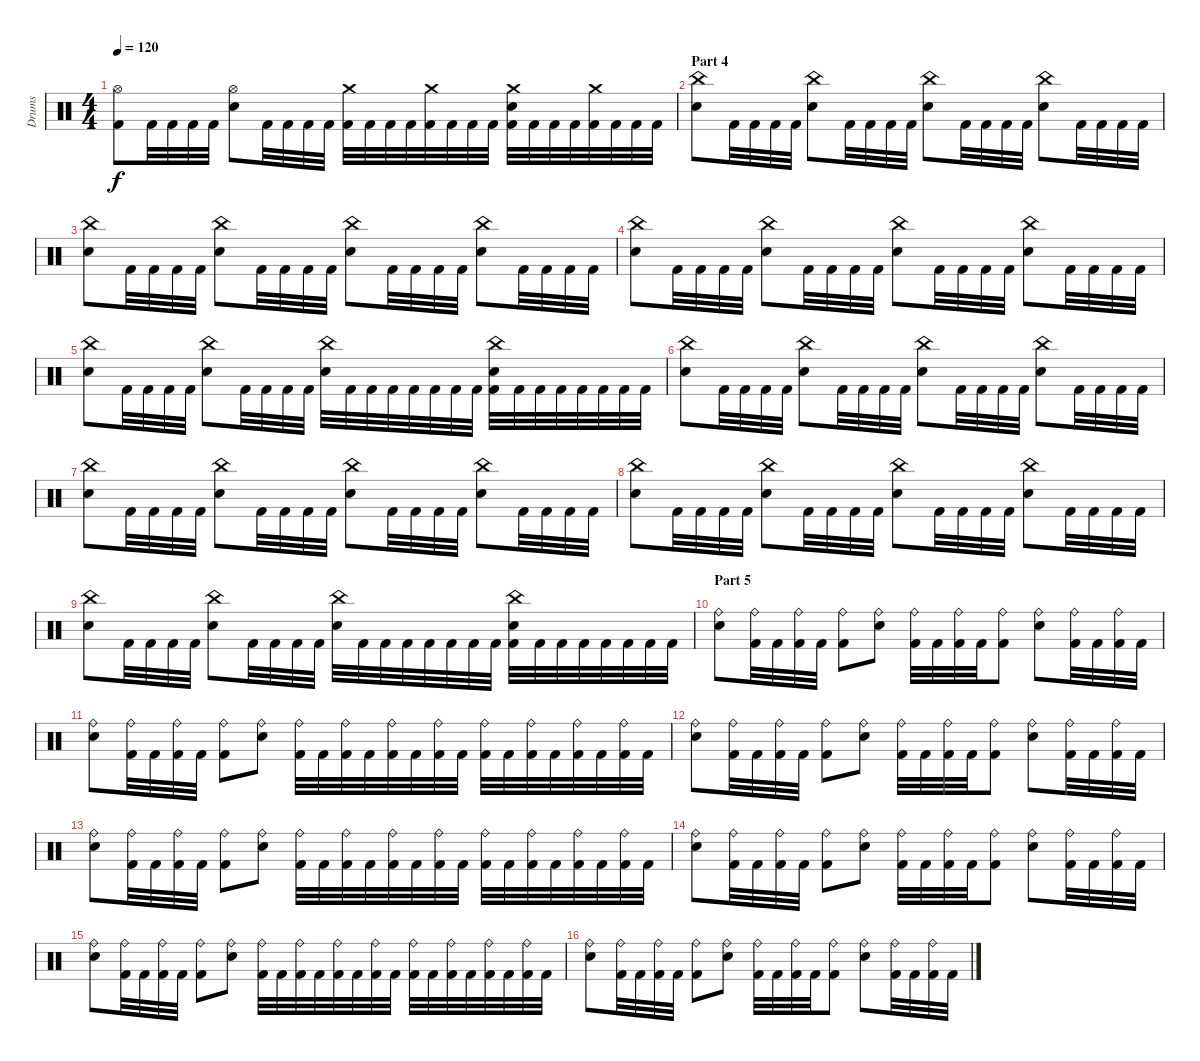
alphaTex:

\track ("Drums" "Drums") {instrument percussion}
\staff {score}
\articulation defaults
\ts (4 4)
\tempo 120
\clef neutral
\ks c
("Hi-Hat (open)" "Kick (hit) 2").8{dy f} "Kick (hit) 2".32 "Kick (hit) 2".32 "Kick (hit) 2".32 "Kick (hit) 2".32 ("Hi-Hat (open)" "Electric Snare (hit)").8 "Kick (hit) 2".32 "Kick (hit) 2".32 "Kick (hit) 2".32 "Kick (hit) 2".32 ("Crash medium (hit)" "Kick (hit) 2").32 "Kick (hit) 2".32 "Kick (hit) 2".32 "Kick (hit) 2".32 ("Crash medium (hit)" "Kick (hit) 2").32 "Kick (hit) 2".32 "Kick (hit) 2".32 "Kick (hit) 2".32 ("Crash medium (hit)" "Electric Snare (hit)" "Kick (hit) 2").32 "Kick (hit) 2".32 "Kick (hit) 2".32 "Kick (hit) 2".32 ("Crash medium (hit)" "Kick (hit) 2").32 "Kick (hit) 2".32 "Kick (hit) 2".32 "Kick (hit) 2".32 |
\section ("" "Part 4")
("China (hit)" "Electric Snare (hit)").8 "Kick (hit) 2".32 "Kick (hit) 2".32 "Kick (hit) 2".32 "Kick (hit) 2".32 ("China (hit)" "Electric Snare (hit)").8 "Kick (hit) 2".32 "Kick (hit) 2".32 "Kick (hit) 2".32 "Kick (hit) 2".32 ("China (hit)" "Electric Snare (hit)").8 "Kick (hit) 2".32 "Kick (hit) 2".32 "Kick (hit) 2".32 "Kick (hit) 2".32 ("China (hit)" "Electric Snare (hit)").8 "Kick (hit) 2".32 "Kick (hit) 2".32 "Kick (hit) 2".32 "Kick (hit) 2".32 |
("China (hit)" "Electric Snare (hit)").8 "Kick (hit) 2".32 "Kick (hit) 2".32 "Kick (hit) 2".32 "Kick (hit) 2".32 ("China (hit)" "Electric Snare (hit)").8 "Kick (hit) 2".32 "Kick (hit) 2".32 "Kick (hit) 2".32 "Kick (hit) 2".32 ("China (hit)" "Electric Snare (hit)").8 "Kick (hit) 2".32 "Kick (hit) 2".32 "Kick (hit) 2".32 "Kick (hit) 2".32 ("China (hit)" "Electric Snare (hit)").8 "Kick (hit) 2".32 "Kick (hit) 2".32 "Kick (hit) 2".32 "Kick (hit) 2".32 |
("China (hit)" "Electric Snare (hit)").8 "Kick (hit) 2".32 "Kick (hit) 2".32 "Kick (hit) 2".32 "Kick (hit) 2".32 ("China (hit)" "Electric Snare (hit)").8 "Kick (hit) 2".32 "Kick (hit) 2".32 "Kick (hit) 2".32 "Kick (hit) 2".32 ("China (hit)" "Electric Snare (hit)").8 "Kick (hit) 2".32 "Kick (hit) 2".32 "Kick (hit) 2".32 "Kick (hit) 2".32 ("China (hit)" "Electric Snare (hit)").8 "Kick (hit) 2".32 "Kick (hit) 2".32 "Kick (hit) 2".32 "Kick (hit) 2".32 |
("China (hit)" "Electric Snare (hit)").8 "Kick (hit) 2".32 "Kick (hit) 2".32 "Kick (hit) 2".32 "Kick (hit) 2".32 ("China (hit)" "Electric Snare (hit)").8 "Kick (hit) 2".32 "Kick (hit) 2".32 "Kick (hit) 2".32 "Kick (hit) 2".32 ("China (hit)" "Electric Snare (hit)").32 "Kick (hit) 2".32 "Kick (hit) 2".32 "Kick (hit) 2".32 "Kick (hit) 2".32 "Kick (hit) 2".32 "Kick (hit) 2".32 "Kick (hit) 2".32 ("China (hit)" "Electric Snare (hit)" "Kick (hit) 2").32 "Kick (hit) 2".32 "Kick (hit) 2".32 "Kick (hit) 2".32 "Kick (hit) 2".32 "Kick (hit) 2".32 "Kick (hit) 2".32 "Kick (hit) 2".32 |
("China (hit)" "Electric Snare (hit)").8 "Kick (hit) 2".32 "Kick (hit) 2".32 "Kick (hit) 2".32 "Kick (hit) 2".32 ("China (hit)" "Electric Snare (hit)").8 "Kick (hit) 2".32 "Kick (hit) 2".32 "Kick (hit) 2".32 "Kick (hit) 2".32 ("China (hit)" "Electric Snare (hit)").8 "Kick (hit) 2".32 "Kick (hit) 2".32 "Kick (hit) 2".32 "Kick (hit) 2".32 ("China (hit)" "Electric Snare (hit)").8 "Kick (hit) 2".32 "Kick (hit) 2".32 "Kick (hit) 2".32 "Kick (hit) 2".32 |
("China (hit)" "Electric Snare (hit)").8 "Kick (hit) 2".32 "Kick (hit) 2".32 "Kick (hit) 2".32 "Kick (hit) 2".32 ("China (hit)" "Electric Snare (hit)").8 "Kick (hit) 2".32 "Kick (hit) 2".32 "Kick (hit) 2".32 "Kick (hit) 2".32 ("China (hit)" "Electric Snare (hit)").8 "Kick (hit) 2".32 "Kick (hit) 2".32 "Kick (hit) 2".32 "Kick (hit) 2".32 ("China (hit)" "Electric Snare (hit)").8 "Kick (hit) 2".32 "Kick (hit) 2".32 "Kick (hit) 2".32 "Kick (hit) 2".32 |
("China (hit)" "Electric Snare (hit)").8 "Kick (hit) 2".32 "Kick (hit) 2".32 "Kick (hit) 2".32 "Kick (hit) 2".32 ("China (hit)" "Electric Snare (hit)").8 "Kick (hit) 2".32 "Kick (hit) 2".32 "Kick (hit) 2".32 "Kick (hit) 2".32 ("China (hit)" "Electric Snare (hit)").8 "Kick (hit) 2".32 "Kick (hit) 2".32 "Kick (hit) 2".32 "Kick (hit) 2".32 ("China (hit)" "Electric Snare (hit)").8 "Kick (hit) 2".32 "Kick (hit) 2".32 "Kick (hit) 2".32 "Kick (hit) 2".32 |
("China (hit)" "Electric Snare (hit)").8 "Kick (hit) 2".32 "Kick (hit) 2".32 "Kick (hit) 2".32 "Kick (hit) 2".32 ("China (hit)" "Electric Snare (hit)").8 "Kick (hit) 2".32 "Kick (hit) 2".32 "Kick (hit) 2".32 "Kick (hit) 2".32 ("China (hit)" "Electric Snare (hit)").32 "Kick (hit) 2".32 "Kick (hit) 2".32 "Kick (hit) 2".32 "Kick (hit) 2".32 "Kick (hit) 2".32 "Kick (hit) 2".32 "Kick (hit) 2".32 ("China (hit)" "Electric Snare (hit)" "Kick (hit) 2").32 "Kick (hit) 2".32 "Kick (hit) 2".32 "Kick (hit) 2".32 "Kick (hit) 2".32 "Kick (hit) 2".32 "Kick (hit) 2".32 "Kick (hit) 2".32 |
\section ("" "Part 5")
("Ride (bell)" "Electric Snare (hit)").8 ("Ride (bell)" "Kick (hit) 2").32 "Kick (hit) 2".32 ("Ride (bell)" "Kick (hit) 2").32 "Kick (hit) 2".32 ("Ride (bell)" "Kick (hit) 2").8 ("Ride (bell)" "Electric Snare (hit)").8 ("Ride (bell)" "Kick (hit) 2").32 "Kick (hit) 2".32 ("Ride (bell)" "Kick (hit) 2").32 "Kick (hit) 2".32 ("Ride (bell)" "Kick (hit) 2").8 ("Ride (bell)" "Electric Snare (hit)").8 ("Ride (bell)" "Kick (hit) 2").32 "Kick (hit) 2".32 ("Ride (bell)" "Kick (hit) 2").32 "Kick (hit) 2".32 |
("Ride (bell)" "Electric Snare (hit)").8 ("Ride (bell)" "Kick (hit) 2").32 "Kick (hit) 2".32 ("Ride (bell)" "Kick (hit) 2").32 "Kick (hit) 2".32 ("Ride (bell)" "Kick (hit) 2").8 ("Ride (bell)" "Electric Snare (hit)").8 ("Ride (bell)" "Kick (hit) 2").32 "Kick (hit) 2".32 ("Ride (bell)" "Kick (hit) 2").32 "Kick (hit) 2".32 ("Ride (bell)" "Kick (hit) 2").32 "Kick (hit) 2".32 ("Ride (bell)" "Kick (hit) 2").32 "Kick (hit) 2".32 ("Ride (bell)" "Kick (hit) 2").32 "Kick (hit) 2".32 ("Ride (bell)" "Kick (hit) 2").32 "Kick (hit) 2".32 ("Ride (bell)" "Kick (hit) 2").32 "Kick (hit) 2".32 ("Ride (bell)" "Kick (hit) 2").32 "Kick (hit) 2".32 |
("Ride (bell)" "Electric Snare (hit)").8 ("Ride (bell)" "Kick (hit) 2").32 "Kick (hit) 2".32 ("Ride (bell)" "Kick (hit) 2").32 "Kick (hit) 2".32 ("Ride (bell)" "Kick (hit) 2").8 ("Ride (bell)" "Electric Snare (hit)").8 ("Ride (bell)" "Kick (hit) 2").32 "Kick (hit) 2".32 ("Ride (bell)" "Kick (hit) 2").32 "Kick (hit) 2".32 ("Ride (bell)" "Kick (hit) 2").8 ("Ride (bell)" "Electric Snare (hit)").8 ("Ride (bell)" "Kick (hit) 2").32 "Kick (hit) 2".32 ("Ride (bell)" "Kick (hit) 2").32 "Kick (hit) 2".32 |
("Ride (bell)" "Electric Snare (hit)").8 ("Ride (bell)" "Kick (hit) 2").32 "Kick (hit) 2".32 ("Ride (bell)" "Kick (hit) 2").32 "Kick (hit) 2".32 ("Ride (bell)" "Kick (hit) 2").8 ("Ride (bell)" "Electric Snare (hit)").8 ("Ride (bell)" "Kick (hit) 2").32 "Kick (hit) 2".32 ("Ride (bell)" "Kick (hit) 2").32 "Kick (hit) 2".32 ("Ride (bell)" "Kick (hit) 2").32 "Kick (hit) 2".32 ("Ride (bell)" "Kick (hit) 2").32 "Kick (hit) 2".32 ("Ride (bell)" "Kick (hit) 2").32 "Kick (hit) 2".32 ("Ride (bell)" "Kick (hit) 2").32 "Kick (hit) 2".32 ("Ride (bell)" "Kick (hit) 2").32 "Kick (hit) 2".32 ("Ride (bell)" "Kick (hit) 2").32 "Kick (hit) 2".32 |
("Ride (bell)" "Electric Snare (hit)").8 ("Ride (bell)" "Kick (hit) 2").32 "Kick (hit) 2".32 ("Ride (bell)" "Kick (hit) 2").32 "Kick (hit) 2".32 ("Ride (bell)" "Kick (hit) 2").8 ("Ride (bell)" "Electric Snare (hit)").8 ("Ride (bell)" "Kick (hit) 2").32 "Kick (hit) 2".32 ("Ride (bell)" "Kick (hit) 2").32 "Kick (hit) 2".32 ("Ride (bell)" "Kick (hit) 2").8 ("Ride (bell)" "Electric Snare (hit)").8 ("Ride (bell)" "Kick (hit) 2").32 "Kick (hit) 2".32 ("Ride (bell)" "Kick (hit) 2").32 "Kick (hit) 2".32 |
("Ride (bell)" "Electric Snare (hit)").8 ("Ride (bell)" "Kick (hit) 2").32 "Kick (hit) 2".32 ("Ride (bell)" "Kick (hit) 2").32 "Kick (hit) 2".32 ("Ride (bell)" "Kick (hit) 2").8 ("Ride (bell)" "Electric Snare (hit)").8 ("Ride (bell)" "Kick (hit) 2").32 "Kick (hit) 2".32 ("Ride (bell)" "Kick (hit) 2").32 "Kick (hit) 2".32 ("Ride (bell)" "Kick (hit) 2").32 "Kick (hit) 2".32 ("Ride (bell)" "Kick (hit) 2").32 "Kick (hit) 2".32 ("Ride (bell)" "Kick (hit) 2").32 "Kick (hit) 2".32 ("Ride (bell)" "Kick (hit) 2").32 "Kick (hit) 2".32 ("Ride (bell)" "Kick (hit) 2").32 "Kick (hit) 2".32 ("Ride (bell)" "Kick (hit) 2").32 "Kick (hit) 2".32 |
("Ride (bell)" "Electric Snare (hit)").8 ("Ride (bell)" "Kick (hit) 2").32 "Kick (hit) 2".32 ("Ride (bell)" "Kick (hit) 2").32 "Kick (hit) 2".32 ("Ride (bell)" "Kick (hit) 2").8 ("Ride (bell)" "Electric Snare (hit)").8 ("Ride (bell)" "Kick (hit) 2").32 "Kick (hit) 2".32 ("Ride (bell)" "Kick (hit) 2").32 "Kick (hit) 2".32 ("Ride (bell)" "Kick (hit) 2").8 ("Ride (bell)" "Electric Snare (hit)").8 ("Ride (bell)" "Kick (hit) 2").32 "Kick (hit) 2".32 ("Ride (bell)" "Kick (hit) 2").32 "Kick (hit) 2".32
